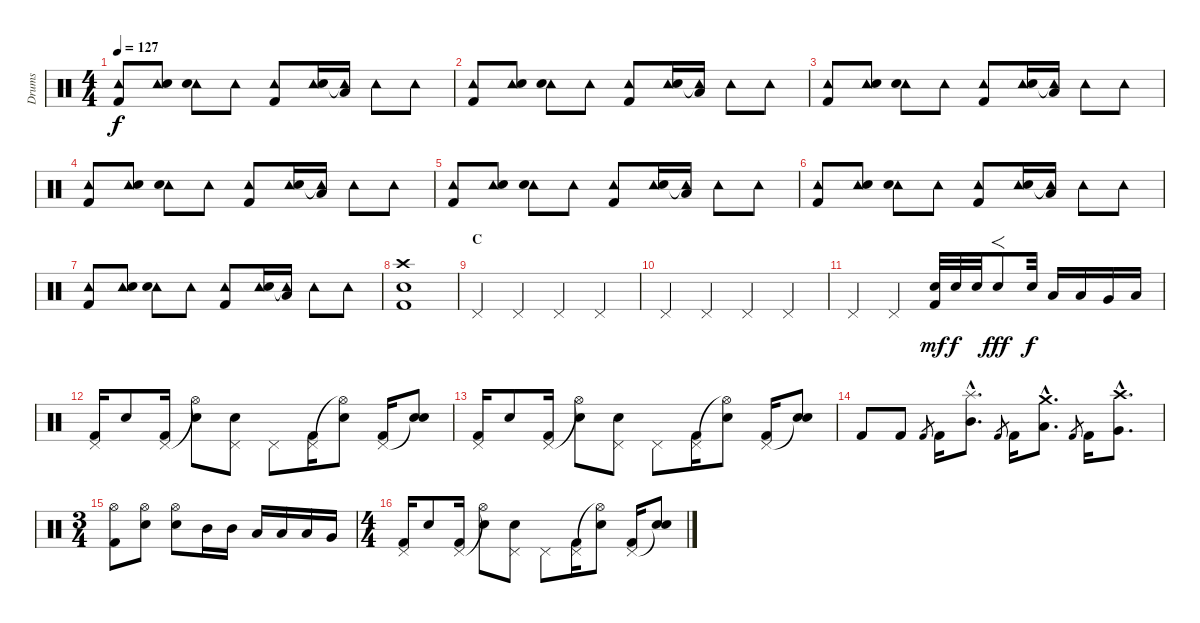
\track ("Drums" "Drums") {instrument percussion}
\staff {score}
\articulation defaults
\ts (4 4)
\tempo 127
\clef neutral
\ks c
("Tambourine (hit)" "Kick (hit) 2").8{dy f} ("Tambourine (hit)" "Electric Snare (hit)").8 ("Tambourine (hit)" "Electric Snare (hit)").8 "Tambourine (hit)".8 ("Tambourine (hit)" "Kick (hit) 2").8 ("Tambourine (hit)" "Electric Snare (hit)").16 ("Tambourine (hit)"{t} "Low Tom (hit)").16 "Tambourine (hit)".8 "Tambourine (hit)".8 |
("Tambourine (hit)" "Kick (hit) 2").8 ("Tambourine (hit)" "Electric Snare (hit)").8 ("Tambourine (hit)" "Electric Snare (hit)").8 "Tambourine (hit)".8 ("Tambourine (hit)" "Kick (hit) 2").8 ("Tambourine (hit)" "Electric Snare (hit)").16 ("Tambourine (hit)"{t} "Low Tom (hit)").16 "Tambourine (hit)".8 "Tambourine (hit)".8 |
("Tambourine (hit)" "Kick (hit) 2").8 ("Tambourine (hit)" "Electric Snare (hit)").8 ("Tambourine (hit)" "Electric Snare (hit)").8 "Tambourine (hit)".8 ("Tambourine (hit)" "Kick (hit) 2").8 ("Tambourine (hit)" "Electric Snare (hit)").16 ("Tambourine (hit)"{t} "Low Tom (hit)").16 "Tambourine (hit)".8 "Tambourine (hit)".8 |
("Tambourine (hit)" "Kick (hit) 2").8 ("Tambourine (hit)" "Electric Snare (hit)").8 ("Tambourine (hit)" "Electric Snare (hit)").8 "Tambourine (hit)".8 ("Tambourine (hit)" "Kick (hit) 2").8 ("Tambourine (hit)" "Electric Snare (hit)").16 ("Tambourine (hit)"{t} "Low Tom (hit)").16 "Tambourine (hit)".8 "Tambourine (hit)".8 |
("Tambourine (hit)" "Kick (hit) 2").8 ("Tambourine (hit)" "Electric Snare (hit)").8 ("Tambourine (hit)" "Electric Snare (hit)").8 "Tambourine (hit)".8 ("Tambourine (hit)" "Kick (hit) 2").8 ("Tambourine (hit)" "Electric Snare (hit)").16 ("Tambourine (hit)"{t} "Low Tom (hit)").16 "Tambourine (hit)".8 "Tambourine (hit)".8 |
("Tambourine (hit)" "Kick (hit) 2").8 ("Tambourine (hit)" "Electric Snare (hit)").8 ("Tambourine (hit)" "Electric Snare (hit)").8 "Tambourine (hit)".8 ("Tambourine (hit)" "Kick (hit) 2").8 ("Tambourine (hit)" "Electric Snare (hit)").16 ("Tambourine (hit)"{t} "Low Tom (hit)").16 "Tambourine (hit)".8 "Tambourine (hit)".8 |
("Tambourine (hit)" "Kick (hit) 2").8 ("Tambourine (hit)" "Electric Snare (hit)").8 ("Tambourine (hit)" "Electric Snare (hit)").8 "Tambourine (hit)".8 ("Tambourine (hit)" "Kick (hit) 2").8 ("Tambourine (hit)" "Electric Snare (hit)").16 ("Tambourine (hit)"{t} "Low Tom (hit)").16 "Tambourine (hit)".8 "Tambourine (hit)".8 |
("Crash high (hit)" "Electric Snare (hit)" "Kick (hit) 2").1 |
\section ("" "C")
"Pedal Hi-Hat (hit)".4 "Pedal Hi-Hat (hit)".4 "Pedal Hi-Hat (hit)".4 "Pedal Hi-Hat (hit)".4 |
"Pedal Hi-Hat (hit)".4 "Pedal Hi-Hat (hit)".4 "Pedal Hi-Hat (hit)".4 "Pedal Hi-Hat (hit)".4 |
"Pedal Hi-Hat (hit)".4 "Pedal Hi-Hat (hit)".4 ("Electric Snare (hit)" "Kick (hit) 2").32{dy mf} "Electric Snare (hit)".32{dy f} "Electric Snare (hit)".32 "Electric Snare (hit)".8{f dy fff} "Electric Snare (hit)".32{dy f} "Low Tom (hit)".16 "Low Tom (hit)".16 "Very Low Tom (hit)".16 "Low Floor Tom (hit)".16 |
("Pedal Hi-Hat (hit)" "Kick (hit) 2").16 "Electric Snare (hit)".8 ("Pedal Hi-Hat (hit)" "Kick (hit) 2").16 ("Hi-Hat (open)"{t} "Electric Snare (hit)").8 ("Pedal Hi-Hat (hit)" "Electric Snare (hit)").8 "Pedal Hi-Hat (hit)".8 ("Pedal Hi-Hat (hit)" "Kick (hit) 2").16 ("Hi-Hat (open)"{t} "Electric Snare (hit)").8 ("Pedal Hi-Hat (hit)" "Kick (hit) 2").16 ("Snare (hit)"{t} "Electric Snare (hit)").8 |
("Pedal Hi-Hat (hit)" "Kick (hit) 2").16 "Electric Snare (hit)".8 ("Pedal Hi-Hat (hit)" "Kick (hit) 2").16 ("Hi-Hat (open)"{t} "Electric Snare (hit)").8 ("Pedal Hi-Hat (hit)" "Electric Snare (hit)").8 "Pedal Hi-Hat (hit)".8 ("Pedal Hi-Hat (hit)" "Kick (hit) 2").16 ("Hi-Hat (open)"{t} "Electric Snare (hit)").8 ("Pedal Hi-Hat (hit)" "Kick (hit) 2").16 ("Snare (hit)"{t} "Electric Snare (hit)").8 |
"Kick (hit) 2".8 "Kick (hit) 2".8 "Kick (hit) 2".8{gr} "Kick (hit) 2".16 ("Splash (hit)"{hac} "Mid Tom (hit)"{hac}).8{d} "Kick (hit) 2".8{gr} "Kick (hit) 2".16 ("Crash medium (hit)"{hac} "Low Tom (hit)"{hac}).8{d} "Kick (hit) 2".8{gr} "Kick (hit) 2".16 ("Crash high (hit)"{hac} "Very Low Tom (hit)"{hac}).8{d} |
\ts (3 4)
("Hi-Hat (open)" "Kick (hit) 2").8 ("Hi-Hat (open)" "Electric Snare (hit)").8 ("Hi-Hat (open)" "Electric Snare (hit)").8 "Mid Tom (hit)".16 "Mid Tom (hit)".16 "Low Tom (hit)".16 "Low Tom (hit)".16 "Low Tom (hit)".16 "Very Low Tom (hit)".16 |
\ts (4 4)
("Pedal Hi-Hat (hit)" "Kick (hit) 2").16 "Electric Snare (hit)".8 ("Pedal Hi-Hat (hit)" "Kick (hit) 2").16 ("Hi-Hat (open)"{t} "Electric Snare (hit)").8 ("Pedal Hi-Hat (hit)" "Electric Snare (hit)").8 "Pedal Hi-Hat (hit)".8 ("Pedal Hi-Hat (hit)" "Kick (hit) 2").16 ("Hi-Hat (open)"{t} "Electric Snare (hit)").8 ("Pedal Hi-Hat (hit)" "Kick (hit) 2").16 ("Snare (hit)"{t} "Electric Snare (hit)").8
